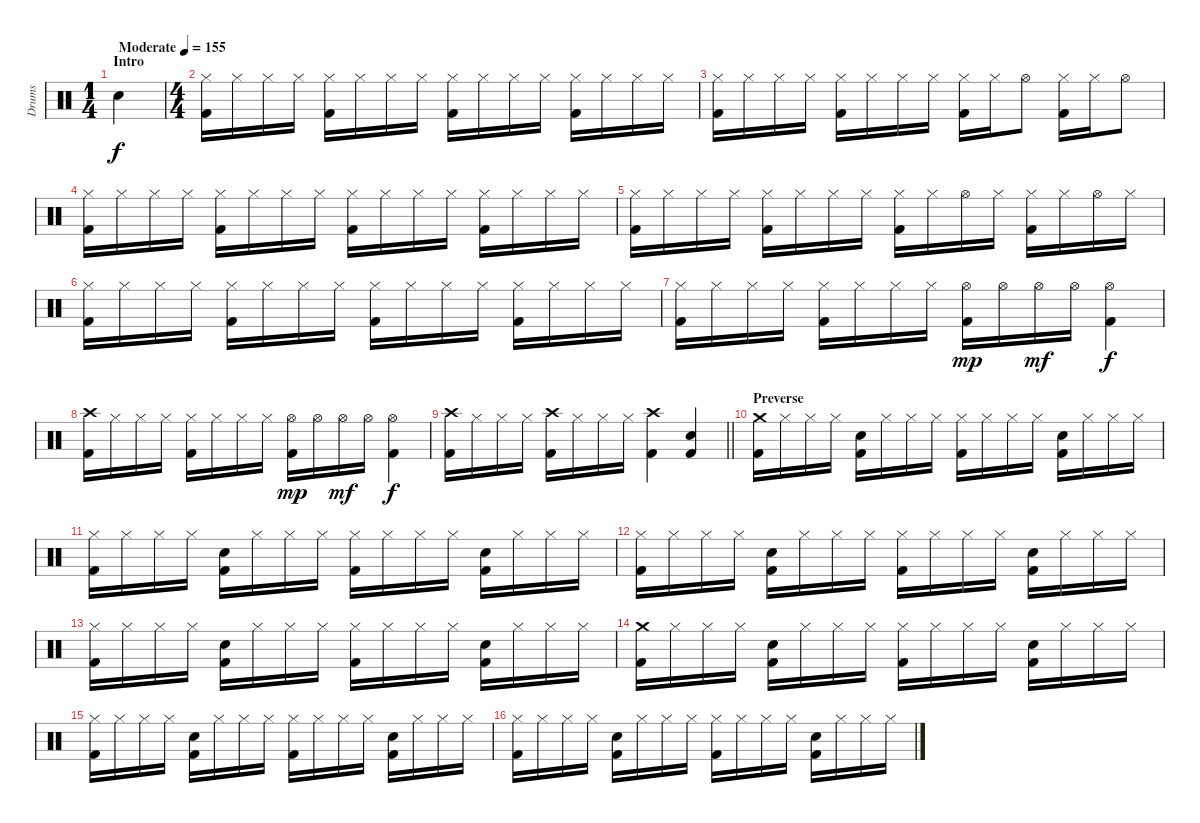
\track ("Drums" "Drums") {instrument percussion}
\staff {score}
\articulation defaults
\ts (1 4)
\section ("" "Intro")
\tempo (155 "Moderate")
\clef neutral
\ks c "Electric Snare (hit)".4{dy f}
|
\ts (4 4)
("Hi-Hat (closed)" "Kick (hit) 2").16 "Hi-Hat (closed)".16 "Hi-Hat (closed)".16 "Hi-Hat (closed)".16 ("Hi-Hat (closed)" "Kick (hit) 2").16 "Hi-Hat (closed)".16 "Hi-Hat (closed)".16 "Hi-Hat (closed)".16 ("Hi-Hat (closed)" "Kick (hit) 2").16 "Hi-Hat (closed)".16 "Hi-Hat (closed)".16 "Hi-Hat (closed)".16 ("Hi-Hat (closed)" "Kick (hit) 2").16 "Hi-Hat (closed)".16 "Hi-Hat (closed)".16 "Hi-Hat (closed)".16 |
("Hi-Hat (closed)" "Kick (hit) 2").16 "Hi-Hat (closed)".16 "Hi-Hat (closed)".16 "Hi-Hat (closed)".16 ("Hi-Hat (closed)" "Kick (hit) 2").16 "Hi-Hat (closed)".16 "Hi-Hat (closed)".16 "Hi-Hat (closed)".16 ("Hi-Hat (closed)" "Kick (hit) 2").16 "Hi-Hat (closed)".16 "Hi-Hat (open)".8 ("Hi-Hat (closed)" "Kick (hit) 2").16 "Hi-Hat (closed)".16 "Hi-Hat (open)".8 |
("Hi-Hat (closed)" "Kick (hit) 2").16 "Hi-Hat (closed)".16 "Hi-Hat (closed)".16 "Hi-Hat (closed)".16 ("Hi-Hat (closed)" "Kick (hit) 2").16 "Hi-Hat (closed)".16 "Hi-Hat (closed)".16 "Hi-Hat (closed)".16 ("Hi-Hat (closed)" "Kick (hit) 2").16 "Hi-Hat (closed)".16 "Hi-Hat (closed)".16 "Hi-Hat (closed)".16 ("Hi-Hat (closed)" "Kick (hit) 2").16 "Hi-Hat (closed)".16 "Hi-Hat (closed)".16 "Hi-Hat (closed)".16 |
("Hi-Hat (closed)" "Kick (hit) 2").16 "Hi-Hat (closed)".16 "Hi-Hat (closed)".16 "Hi-Hat (closed)".16 ("Hi-Hat (closed)" "Kick (hit) 2").16 "Hi-Hat (closed)".16 "Hi-Hat (closed)".16 "Hi-Hat (closed)".16 ("Hi-Hat (closed)" "Kick (hit) 2").16 "Hi-Hat (closed)".16 "Hi-Hat (open)".16 "Hi-Hat (closed)".16 ("Hi-Hat (closed)" "Kick (hit) 2").16 "Hi-Hat (closed)".16 "Hi-Hat (open)".16 "Hi-Hat (closed)".16 |
("Hi-Hat (closed)" "Kick (hit) 2").16 "Hi-Hat (closed)".16 "Hi-Hat (closed)".16 "Hi-Hat (closed)".16 ("Hi-Hat (closed)" "Kick (hit) 2").16 "Hi-Hat (closed)".16 "Hi-Hat (closed)".16 "Hi-Hat (closed)".16 ("Hi-Hat (closed)" "Kick (hit) 2").16 "Hi-Hat (closed)".16 "Hi-Hat (closed)".16 "Hi-Hat (closed)".16 ("Hi-Hat (closed)" "Kick (hit) 2").16 "Hi-Hat (closed)".16 "Hi-Hat (closed)".16 "Hi-Hat (closed)".16 |
("Hi-Hat (closed)" "Kick (hit) 2").16 "Hi-Hat (closed)".16 "Hi-Hat (closed)".16 "Hi-Hat (closed)".16 ("Hi-Hat (closed)" "Kick (hit) 2").16 "Hi-Hat (closed)".16 "Hi-Hat (closed)".16 "Hi-Hat (closed)".16 ("Hi-Hat (open)" "Kick (hit) 2").16{dy mp} "Hi-Hat (open)".16 "Hi-Hat (open)".16{dy mf} "Hi-Hat (open)".16 ("Hi-Hat (open)" "Kick (hit) 2").4{dy f} |
("Crash high (hit)" "Kick (hit) 2").16 "Hi-Hat (closed)".16 "Hi-Hat (closed)".16 "Hi-Hat (closed)".16 ("Hi-Hat (closed)" "Kick (hit) 2").16 "Hi-Hat (closed)".16 "Hi-Hat (closed)".16 "Hi-Hat (closed)".16 ("Hi-Hat (open)" "Kick (hit) 2").16{dy mp} "Hi-Hat (open)".16 "Hi-Hat (open)".16{dy mf} "Hi-Hat (open)".16 ("Hi-Hat (open)" "Kick (hit) 2").4{dy f} |
\barLineRight lightlight
("Crash high (hit)" "Kick (hit) 2").16 "Hi-Hat (closed)".16 "Hi-Hat (closed)".16 "Hi-Hat (closed)".16 ("Crash high (hit)" "Kick (hit) 2").16 "Hi-Hat (closed)".16 "Hi-Hat (closed)".16 "Hi-Hat (closed)".16 ("Crash high (hit)" "Kick (hit) 2").4 ("Electric Snare (hit)" "Kick (hit) 2").4 |
\section ("" "Preverse")
("Crash medium (hit)" "Kick (hit) 2").16 "Hi-Hat (closed)".16 "Hi-Hat (closed)".16 "Hi-Hat (closed)".16 ("Electric Snare (hit)" "Kick (hit) 2").16 "Hi-Hat (closed)".16 "Hi-Hat (closed)".16 "Hi-Hat (closed)".16 ("Hi-Hat (closed)" "Kick (hit) 2").16 "Hi-Hat (closed)".16 "Hi-Hat (closed)".16 "Hi-Hat (closed)".16 ("Electric Snare (hit)" "Kick (hit) 2").16 "Hi-Hat (closed)".16 "Hi-Hat (closed)".16 "Hi-Hat (closed)".16 |
("Hi-Hat (closed)" "Kick (hit) 2").16 "Hi-Hat (closed)".16 "Hi-Hat (closed)".16 "Hi-Hat (closed)".16 ("Electric Snare (hit)" "Kick (hit) 2").16 "Hi-Hat (closed)".16 "Hi-Hat (closed)".16 "Hi-Hat (closed)".16 ("Hi-Hat (closed)" "Kick (hit) 2").16 "Hi-Hat (closed)".16 "Hi-Hat (closed)".16 "Hi-Hat (closed)".16 ("Electric Snare (hit)" "Kick (hit) 2").16 "Hi-Hat (closed)".16 "Hi-Hat (closed)".16 "Hi-Hat (closed)".16 |
("Hi-Hat (closed)" "Kick (hit) 2").16 "Hi-Hat (closed)".16 "Hi-Hat (closed)".16 "Hi-Hat (closed)".16 ("Electric Snare (hit)" "Kick (hit) 2").16 "Hi-Hat (closed)".16 "Hi-Hat (closed)".16 "Hi-Hat (closed)".16 ("Hi-Hat (closed)" "Kick (hit) 2").16 "Hi-Hat (closed)".16 "Hi-Hat (closed)".16 "Hi-Hat (closed)".16 ("Electric Snare (hit)" "Kick (hit) 2").16 "Hi-Hat (closed)".16 "Hi-Hat (closed)".16 "Hi-Hat (closed)".16 |
("Hi-Hat (closed)" "Kick (hit) 2").16 "Hi-Hat (closed)".16 "Hi-Hat (closed)".16 "Hi-Hat (closed)".16 ("Electric Snare (hit)" "Kick (hit) 2").16 "Hi-Hat (closed)".16 "Hi-Hat (closed)".16 "Hi-Hat (closed)".16 ("Hi-Hat (closed)" "Kick (hit) 2").16 "Hi-Hat (closed)".16 "Hi-Hat (closed)".16 "Hi-Hat (closed)".16 ("Electric Snare (hit)" "Kick (hit) 2").16 "Hi-Hat (closed)".16 "Hi-Hat (closed)".16 "Hi-Hat (closed)".16 |
("Crash medium (hit)" "Kick (hit) 2").16 "Hi-Hat (closed)".16 "Hi-Hat (closed)".16 "Hi-Hat (closed)".16 ("Electric Snare (hit)" "Kick (hit) 2").16 "Hi-Hat (closed)".16 "Hi-Hat (closed)".16 "Hi-Hat (closed)".16 ("Hi-Hat (closed)" "Kick (hit) 2").16 "Hi-Hat (closed)".16 "Hi-Hat (closed)".16 "Hi-Hat (closed)".16 ("Electric Snare (hit)" "Kick (hit) 2").16 "Hi-Hat (closed)".16 "Hi-Hat (closed)".16 "Hi-Hat (closed)".16 |
("Hi-Hat (closed)" "Kick (hit) 2").16 "Hi-Hat (closed)".16 "Hi-Hat (closed)".16 "Hi-Hat (closed)".16 ("Electric Snare (hit)" "Kick (hit) 2").16 "Hi-Hat (closed)".16 "Hi-Hat (closed)".16 "Hi-Hat (closed)".16 ("Hi-Hat (closed)" "Kick (hit) 2").16 "Hi-Hat (closed)".16 "Hi-Hat (closed)".16 "Hi-Hat (closed)".16 ("Electric Snare (hit)" "Kick (hit) 2").16 "Hi-Hat (closed)".16 "Hi-Hat (closed)".16 "Hi-Hat (closed)".16 |
("Hi-Hat (closed)" "Kick (hit) 2").16 "Hi-Hat (closed)".16 "Hi-Hat (closed)".16 "Hi-Hat (closed)".16 ("Electric Snare (hit)" "Kick (hit) 2").16 "Hi-Hat (closed)".16 "Hi-Hat (closed)".16 "Hi-Hat (closed)".16 ("Hi-Hat (closed)" "Kick (hit) 2").16 "Hi-Hat (closed)".16 "Hi-Hat (closed)".16 "Hi-Hat (closed)".16 ("Electric Snare (hit)" "Kick (hit) 2").16 "Hi-Hat (closed)".16 "Hi-Hat (closed)".16 "Hi-Hat (closed)".16
